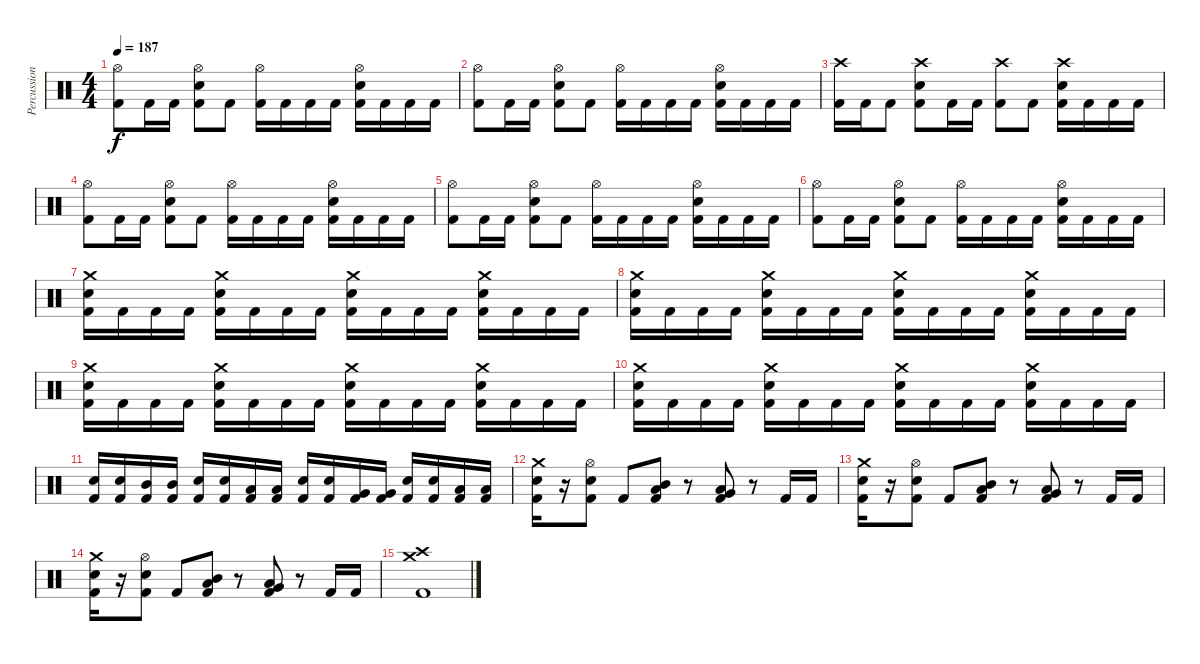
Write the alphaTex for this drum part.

\track ("Percussion" "Percussion") {instrument percussion}
\staff {score}
\articulation defaults
\ts (4 4)
\tempo 187
\clef neutral
\ks c
("Hi-Hat (open)" "Kick (hit) 2").8{dy f} "Kick (hit) 2".16 "Kick (hit) 2".16 ("Hi-Hat (open)" "Electric Snare (hit)" "Kick (hit) 2").8 "Kick (hit) 2".8 ("Hi-Hat (open)" "Kick (hit) 2").16 "Kick (hit) 2".16 "Kick (hit) 2".16 "Kick (hit) 2".16 ("Hi-Hat (open)" "Electric Snare (hit)" "Kick (hit) 2").16 "Kick (hit) 2".16 "Kick (hit) 2".16 "Kick (hit) 2".16 |
("Hi-Hat (open)" "Kick (hit) 2").8 "Kick (hit) 2".16 "Kick (hit) 2".16 ("Hi-Hat (open)" "Electric Snare (hit)" "Kick (hit) 2").8 "Kick (hit) 2".8 ("Hi-Hat (open)" "Kick (hit) 2").16 "Kick (hit) 2".16 "Kick (hit) 2".16 "Kick (hit) 2".16 ("Hi-Hat (open)" "Electric Snare (hit)" "Kick (hit) 2").16 "Kick (hit) 2".16 "Kick (hit) 2".16 "Kick (hit) 2".16 |
("Crash high (hit)" "Kick (hit) 2").16 "Kick (hit) 2".16 "Kick (hit) 2".8 ("Crash high (hit)" "Electric Snare (hit)" "Kick (hit) 2").8 "Kick (hit) 2".16 "Kick (hit) 2".16 ("Crash high (hit)" "Kick (hit) 2").8 "Kick (hit) 2".8 ("Crash high (hit)" "Electric Snare (hit)" "Kick (hit) 2").16 "Kick (hit) 2".16 "Kick (hit) 2".16 "Kick (hit) 2".16 |
("Hi-Hat (open)" "Kick (hit) 2").8 "Kick (hit) 2".16 "Kick (hit) 2".16 ("Hi-Hat (open)" "Electric Snare (hit)" "Kick (hit) 2").8 "Kick (hit) 2".8 ("Hi-Hat (open)" "Kick (hit) 2").16 "Kick (hit) 2".16 "Kick (hit) 2".16 "Kick (hit) 2".16 ("Hi-Hat (open)" "Electric Snare (hit)" "Kick (hit) 2").16 "Kick (hit) 2".16 "Kick (hit) 2".16 "Kick (hit) 2".16 |
("Hi-Hat (open)" "Kick (hit) 2").8 "Kick (hit) 2".16 "Kick (hit) 2".16 ("Hi-Hat (open)" "Electric Snare (hit)" "Kick (hit) 2").8 "Kick (hit) 2".8 ("Hi-Hat (open)" "Kick (hit) 2").16 "Kick (hit) 2".16 "Kick (hit) 2".16 "Kick (hit) 2".16 ("Hi-Hat (open)" "Electric Snare (hit)" "Kick (hit) 2").16 "Kick (hit) 2".16 "Kick (hit) 2".16 "Kick (hit) 2".16 |
("Hi-Hat (open)" "Kick (hit) 2").8 "Kick (hit) 2".16 "Kick (hit) 2".16 ("Hi-Hat (open)" "Electric Snare (hit)" "Kick (hit) 2").8 "Kick (hit) 2".8 ("Hi-Hat (open)" "Kick (hit) 2").16 "Kick (hit) 2".16 "Kick (hit) 2".16 "Kick (hit) 2".16 ("Hi-Hat (open)" "Electric Snare (hit)" "Kick (hit) 2").16 "Kick (hit) 2".16 "Kick (hit) 2".16 "Kick (hit) 2".16 |
("Crash medium (hit)" "Electric Snare (hit)" "Kick (hit) 2").16 "Kick (hit) 2".16 "Kick (hit) 2".16 "Kick (hit) 2".16 ("Crash medium (hit)" "Electric Snare (hit)" "Kick (hit) 2").16 "Kick (hit) 2".16 "Kick (hit) 2".16 "Kick (hit) 2".16 ("Crash medium (hit)" "Electric Snare (hit)" "Kick (hit) 2").16 "Kick (hit) 2".16 "Kick (hit) 2".16 "Kick (hit) 2".16 ("Crash medium (hit)" "Electric Snare (hit)" "Kick (hit) 2").16 "Kick (hit) 2".16 "Kick (hit) 2".16 "Kick (hit) 2".16 |
("Crash medium (hit)" "Electric Snare (hit)" "Kick (hit) 2").16 "Kick (hit) 2".16 "Kick (hit) 2".16 "Kick (hit) 2".16 ("Crash medium (hit)" "Electric Snare (hit)" "Kick (hit) 2").16 "Kick (hit) 2".16 "Kick (hit) 2".16 "Kick (hit) 2".16 ("Crash medium (hit)" "Electric Snare (hit)" "Kick (hit) 2").16 "Kick (hit) 2".16 "Kick (hit) 2".16 "Kick (hit) 2".16 ("Crash medium (hit)" "Electric Snare (hit)" "Kick (hit) 2").16 "Kick (hit) 2".16 "Kick (hit) 2".16 "Kick (hit) 2".16 |
("Crash medium (hit)" "Electric Snare (hit)" "Kick (hit) 2").16 "Kick (hit) 2".16 "Kick (hit) 2".16 "Kick (hit) 2".16 ("Crash medium (hit)" "Electric Snare (hit)" "Kick (hit) 2").16 "Kick (hit) 2".16 "Kick (hit) 2".16 "Kick (hit) 2".16 ("Crash medium (hit)" "Electric Snare (hit)" "Kick (hit) 2").16 "Kick (hit) 2".16 "Kick (hit) 2".16 "Kick (hit) 2".16 ("Crash medium (hit)" "Electric Snare (hit)" "Kick (hit) 2").16 "Kick (hit) 2".16 "Kick (hit) 2".16 "Kick (hit) 2".16 |
("Crash medium (hit)" "Electric Snare (hit)" "Kick (hit) 2").16 "Kick (hit) 2".16 "Kick (hit) 2".16 "Kick (hit) 2".16 ("Crash medium (hit)" "Electric Snare (hit)" "Kick (hit) 2").16 "Kick (hit) 2".16 "Kick (hit) 2".16 "Kick (hit) 2".16 ("Crash medium (hit)" "Electric Snare (hit)" "Kick (hit) 2").16 "Kick (hit) 2".16 "Kick (hit) 2".16 "Kick (hit) 2".16 ("Crash medium (hit)" "Electric Snare (hit)" "Kick (hit) 2").16 "Kick (hit) 2".16 "Kick (hit) 2".16 "Kick (hit) 2".16 |
("Electric Snare (hit)" "Kick (hit) 2").16 ("Electric Snare (hit)" "Kick (hit) 2").16 ("Mid Tom (hit)" "Kick (hit) 2").16 ("Mid Tom (hit)" "Kick (hit) 2").16 ("Electric Snare (hit)" "Kick (hit) 2").16 ("Electric Snare (hit)" "Kick (hit) 2").16 ("Low Tom (hit)" "Kick (hit) 2").16 ("Low Tom (hit)" "Kick (hit) 2").16 ("Electric Snare (hit)" "Kick (hit) 2").16 ("Electric Snare (hit)" "Kick (hit) 2").16 ("Very Low Tom (hit)" "Kick (hit) 2").16 ("Very Low Tom (hit)" "Kick (hit) 2").16 ("Electric Snare (hit)" "Kick (hit) 2").16 ("Electric Snare (hit)" "Kick (hit) 2").16 ("Low Floor Tom (hit)" "Kick (hit) 2").16 ("Low Floor Tom (hit)" "Kick (hit) 2").16 |
("Crash medium (hit)" "Electric Snare (hit)" "Kick (hit) 2").16 r.16 ("Hi-Hat (open)" "Electric Snare (hit)" "Kick (hit) 2").8 "Kick (hit) 2".8 ("Mid Tom (hit)" "Low Tom (hit)" "Kick (hit) 2").8 r.8 ("Very Low Tom (hit)" "Low Floor Tom (hit)" "Kick (hit) 2").8 r.8 "Kick (hit) 2".16 "Kick (hit) 2".16 |
("Crash medium (hit)" "Electric Snare (hit)" "Kick (hit) 2").16 r.16 ("Hi-Hat (open)" "Electric Snare (hit)" "Kick (hit) 2").8 "Kick (hit) 2".8 ("Mid Tom (hit)" "Low Tom (hit)" "Kick (hit) 2").8 r.8 ("Very Low Tom (hit)" "Low Floor Tom (hit)" "Kick (hit) 2").8 r.8 "Kick (hit) 2".16 "Kick (hit) 2".16 |
("Crash medium (hit)" "Electric Snare (hit)" "Kick (hit) 2").16 r.16 ("Hi-Hat (open)" "Electric Snare (hit)" "Kick (hit) 2").8 "Kick (hit) 2".8 ("Mid Tom (hit)" "Low Tom (hit)" "Kick (hit) 2").8 r.8 ("Very Low Tom (hit)" "Low Floor Tom (hit)" "Kick (hit) 2").8 r.8 "Kick (hit) 2".16 "Kick (hit) 2".16 |
("Crash high (hit)" "Crash medium (hit)" "Kick (hit) 2").1
